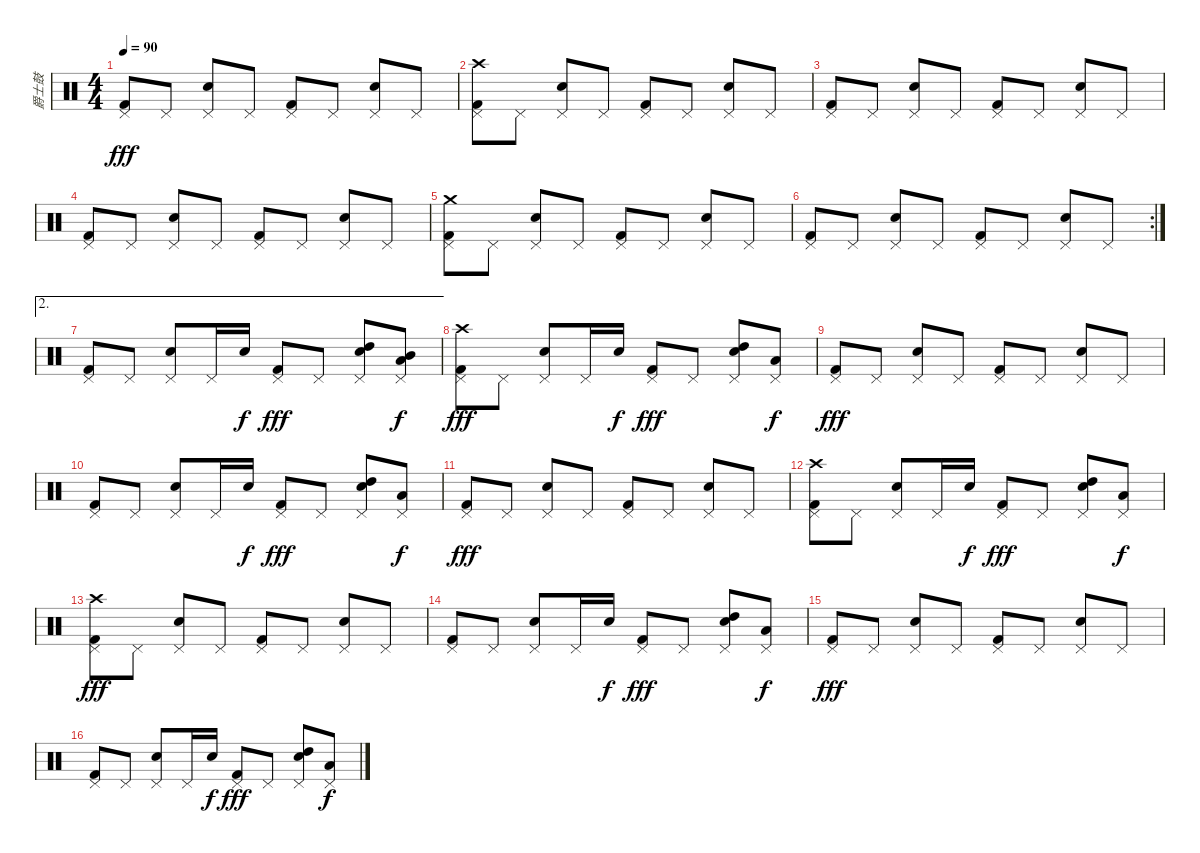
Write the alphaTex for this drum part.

\track ("爵士鼓" "爵士鼓") {instrument percussion}
\staff {score}
\articulation defaults
\ts (4 4)
\tempo 90
\clef neutral
\ks c
("Pedal Hi-Hat (hit)" "Kick (hit) 2").8{dy fff} "Pedal Hi-Hat (hit)".8 ("Pedal Hi-Hat (hit)" "Electric Snare (hit)").8 "Pedal Hi-Hat (hit)".8 ("Pedal Hi-Hat (hit)" "Kick (hit) 2").8 "Pedal Hi-Hat (hit)".8 ("Pedal Hi-Hat (hit)" "Electric Snare (hit)").8 "Pedal Hi-Hat (hit)".8 |
("Pedal Hi-Hat (hit)" "Crash high (hit)" "Kick (hit) 2").8 "Pedal Hi-Hat (hit)".8 ("Pedal Hi-Hat (hit)" "Electric Snare (hit)").8 "Pedal Hi-Hat (hit)".8 ("Pedal Hi-Hat (hit)" "Kick (hit) 2").8 "Pedal Hi-Hat (hit)".8 ("Pedal Hi-Hat (hit)" "Electric Snare (hit)").8 "Pedal Hi-Hat (hit)".8 |
("Pedal Hi-Hat (hit)" "Kick (hit) 2").8 "Pedal Hi-Hat (hit)".8 ("Pedal Hi-Hat (hit)" "Electric Snare (hit)").8 "Pedal Hi-Hat (hit)".8 ("Pedal Hi-Hat (hit)" "Kick (hit) 2").8 "Pedal Hi-Hat (hit)".8 ("Pedal Hi-Hat (hit)" "Electric Snare (hit)").8 "Pedal Hi-Hat (hit)".8 |
("Pedal Hi-Hat (hit)" "Kick (hit) 2").8 "Pedal Hi-Hat (hit)".8 ("Pedal Hi-Hat (hit)" "Electric Snare (hit)").8 "Pedal Hi-Hat (hit)".8 ("Pedal Hi-Hat (hit)" "Kick (hit) 2").8 "Pedal Hi-Hat (hit)".8 ("Pedal Hi-Hat (hit)" "Electric Snare (hit)").8 "Pedal Hi-Hat (hit)".8 |
("Pedal Hi-Hat (hit)" "Crash medium (hit)" "Kick (hit) 2").8 "Pedal Hi-Hat (hit)".8 ("Pedal Hi-Hat (hit)" "Electric Snare (hit)").8 "Pedal Hi-Hat (hit)".8 ("Pedal Hi-Hat (hit)" "Kick (hit) 2").8 "Pedal Hi-Hat (hit)".8 ("Pedal Hi-Hat (hit)" "Electric Snare (hit)").8 "Pedal Hi-Hat (hit)".8 |
\rc 2
("Pedal Hi-Hat (hit)" "Kick (hit) 2").8 "Pedal Hi-Hat (hit)".8 ("Pedal Hi-Hat (hit)" "Electric Snare (hit)").8 "Pedal Hi-Hat (hit)".8 ("Pedal Hi-Hat (hit)" "Kick (hit) 2").8 "Pedal Hi-Hat (hit)".8 ("Pedal Hi-Hat (hit)" "Electric Snare (hit)").8 "Pedal Hi-Hat (hit)".8 |
\ae 2
("Pedal Hi-Hat (hit)" "Kick (hit) 2").8 "Pedal Hi-Hat (hit)".8 ("Pedal Hi-Hat (hit)" "Electric Snare (hit)").8 "Pedal Hi-Hat (hit)".16 "Electric Snare (hit)".16{dy f} ("Pedal Hi-Hat (hit)" "Kick (hit) 2").8{dy fff} "Pedal Hi-Hat (hit)".8 ("Pedal Hi-Hat (hit)" "Electric Snare (hit)" "High Tom (hit)").8 ("Pedal Hi-Hat (hit)" "Low Tom (hit)" "Mid Tom (hit)").8{dy f} |
("Pedal Hi-Hat (hit)" "Crash high (hit)" "Kick (hit) 2").8{dy fff} "Pedal Hi-Hat (hit)".8 ("Pedal Hi-Hat (hit)" "Electric Snare (hit)").8 "Pedal Hi-Hat (hit)".16 "Electric Snare (hit)".16{dy f} ("Pedal Hi-Hat (hit)" "Kick (hit) 2").8{dy fff} "Pedal Hi-Hat (hit)".8 ("Pedal Hi-Hat (hit)" "Electric Snare (hit)" "High Tom (hit)").8 ("Pedal Hi-Hat (hit)" "Low Tom (hit)").8{dy f} |
("Pedal Hi-Hat (hit)" "Kick (hit) 2").8{dy fff} "Pedal Hi-Hat (hit)".8 ("Pedal Hi-Hat (hit)" "Electric Snare (hit)").8 "Pedal Hi-Hat (hit)".8 ("Pedal Hi-Hat (hit)" "Kick (hit) 2").8 "Pedal Hi-Hat (hit)".8 ("Pedal Hi-Hat (hit)" "Electric Snare (hit)").8 "Pedal Hi-Hat (hit)".8 |
("Pedal Hi-Hat (hit)" "Kick (hit) 2").8 "Pedal Hi-Hat (hit)".8 ("Pedal Hi-Hat (hit)" "Electric Snare (hit)").8 "Pedal Hi-Hat (hit)".16 "Electric Snare (hit)".16{dy f} ("Pedal Hi-Hat (hit)" "Kick (hit) 2").8{dy fff} "Pedal Hi-Hat (hit)".8 ("Pedal Hi-Hat (hit)" "Electric Snare (hit)" "High Tom (hit)").8 ("Pedal Hi-Hat (hit)" "Low Tom (hit)").8{dy f} |
("Pedal Hi-Hat (hit)" "Kick (hit) 2").8{dy fff} "Pedal Hi-Hat (hit)".8 ("Pedal Hi-Hat (hit)" "Electric Snare (hit)").8 "Pedal Hi-Hat (hit)".8 ("Pedal Hi-Hat (hit)" "Kick (hit) 2").8 "Pedal Hi-Hat (hit)".8 ("Pedal Hi-Hat (hit)" "Electric Snare (hit)").8 "Pedal Hi-Hat (hit)".8 |
("Pedal Hi-Hat (hit)" "Crash high (hit)" "Kick (hit) 2").8 "Pedal Hi-Hat (hit)".8 ("Pedal Hi-Hat (hit)" "Electric Snare (hit)").8 "Pedal Hi-Hat (hit)".16 "Electric Snare (hit)".16{dy f} ("Pedal Hi-Hat (hit)" "Kick (hit) 2").8{dy fff} "Pedal Hi-Hat (hit)".8 ("Pedal Hi-Hat (hit)" "Electric Snare (hit)" "High Tom (hit)").8 ("Pedal Hi-Hat (hit)" "Low Tom (hit)").8{dy f} |
("Pedal Hi-Hat (hit)" "Crash high (hit)" "Kick (hit) 2").8{dy fff} "Pedal Hi-Hat (hit)".8 ("Pedal Hi-Hat (hit)" "Electric Snare (hit)").8 "Pedal Hi-Hat (hit)".8 ("Pedal Hi-Hat (hit)" "Kick (hit) 2").8 "Pedal Hi-Hat (hit)".8 ("Pedal Hi-Hat (hit)" "Electric Snare (hit)").8 "Pedal Hi-Hat (hit)".8 |
("Pedal Hi-Hat (hit)" "Kick (hit) 2").8 "Pedal Hi-Hat (hit)".8 ("Pedal Hi-Hat (hit)" "Electric Snare (hit)").8 "Pedal Hi-Hat (hit)".16 "Electric Snare (hit)".16{dy f} ("Pedal Hi-Hat (hit)" "Kick (hit) 2").8{dy fff} "Pedal Hi-Hat (hit)".8 ("Pedal Hi-Hat (hit)" "Electric Snare (hit)" "High Tom (hit)").8 ("Pedal Hi-Hat (hit)" "Low Tom (hit)").8{dy f} |
("Pedal Hi-Hat (hit)" "Kick (hit) 2").8{dy fff} "Pedal Hi-Hat (hit)".8 ("Pedal Hi-Hat (hit)" "Electric Snare (hit)").8 "Pedal Hi-Hat (hit)".8 ("Pedal Hi-Hat (hit)" "Kick (hit) 2").8 "Pedal Hi-Hat (hit)".8 ("Pedal Hi-Hat (hit)" "Electric Snare (hit)").8 "Pedal Hi-Hat (hit)".8 |
("Pedal Hi-Hat (hit)" "Kick (hit) 2").8 "Pedal Hi-Hat (hit)".8 ("Pedal Hi-Hat (hit)" "Electric Snare (hit)").8 "Pedal Hi-Hat (hit)".16 "Electric Snare (hit)".16{dy f} ("Pedal Hi-Hat (hit)" "Kick (hit) 2").8{dy fff} "Pedal Hi-Hat (hit)".8 ("Pedal Hi-Hat (hit)" "Electric Snare (hit)" "High Tom (hit)").8 ("Pedal Hi-Hat (hit)" "Low Tom (hit)").8{dy f}
